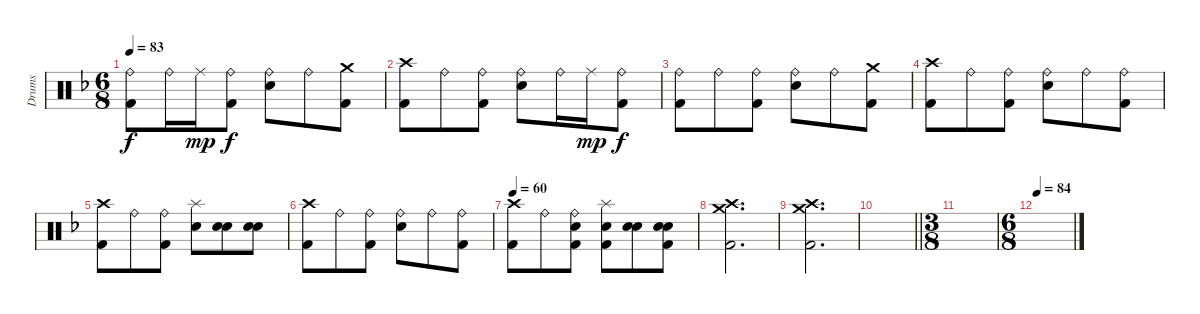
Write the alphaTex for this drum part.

\track ("Drums" "Drums") {instrument percussion}
\staff {score}
\articulation defaults
\ts (6 8)
\tempo 83
\clef neutral
\ks f
("Ride (bell)" "Kick (hit) 2").8{dy f} "Ride (bell)".16 "Ride (middle)".16{dy mp} ("Ride (bell)" "Kick (hit) 2").8{dy f} ("Ride (bell)" "Snare (hit) 2").8 "Ride (bell)".8 ("Crash medium (hit)" "Kick (hit) 2").8 |
("Crash high (hit)" "Kick (hit) 2").8 "Ride (bell)".8 ("Ride (bell)" "Kick (hit) 2").8 ("Ride (bell)" "Snare (hit) 2").8 "Ride (bell)".16 "Ride (middle)".16{dy mp} ("Ride (bell)" "Kick (hit) 2").8{dy f} |
("Ride (bell)" "Kick (hit) 2").8 "Ride (bell)".8 ("Ride (bell)" "Kick (hit) 2").8 ("Ride (bell)" "Snare (hit) 2").8 "Ride (bell)".8 ("Crash medium (hit)" "Kick (hit) 2").8 |
("Crash high (hit)" "Kick (hit) 2").8 "Ride (bell)".8 ("Ride (bell)" "Kick (hit) 2").8 ("Ride (bell)" "Snare (hit) 2").8 "Ride (bell)".8 ("Ride (bell)" "Kick (hit) 2").8 |
("Crash high (hit)" "Kick (hit) 2").8 "Ride (bell)".8 ("Ride (bell)" "Kick (hit) 2").8 ("Splash (hit)" "Snare (hit) 2").8 ("Snare (hit) 2" "Snare (hit) 2").8 ("Snare (hit) 2" "Snare (hit) 2").8 |
("Crash high (hit)" "Kick (hit) 2").8 "Ride (bell)".8 ("Ride (bell)" "Kick (hit) 2").8 ("Ride (bell)" "Snare (hit) 2").8 "Ride (bell)".8 ("Ride (bell)" "Kick (hit) 2").8 |
\tempo 60
("Crash high (hit)" "Kick (hit) 2").8 "Ride (bell)".8 ("Ride (bell)" "Snare (hit) 2" "Kick (hit) 2").8 ("Splash (hit)" "Snare (hit) 2" "Kick (hit) 2").8 ("Snare (hit) 2" "Snare (hit) 2").8 ("Snare (hit) 2" "Snare (hit) 2" "Kick (hit) 2").8 |
("Crash medium (hit)" "Crash high (hit)" "Kick (hit) 2").2{d} |
("Crash medium (hit)" "Crash high (hit)" "Kick (hit) 2").2{d} |
\barLineRight lightlight
|
\ts (3 8)
|
\ts (6 8)
\tempo 84
